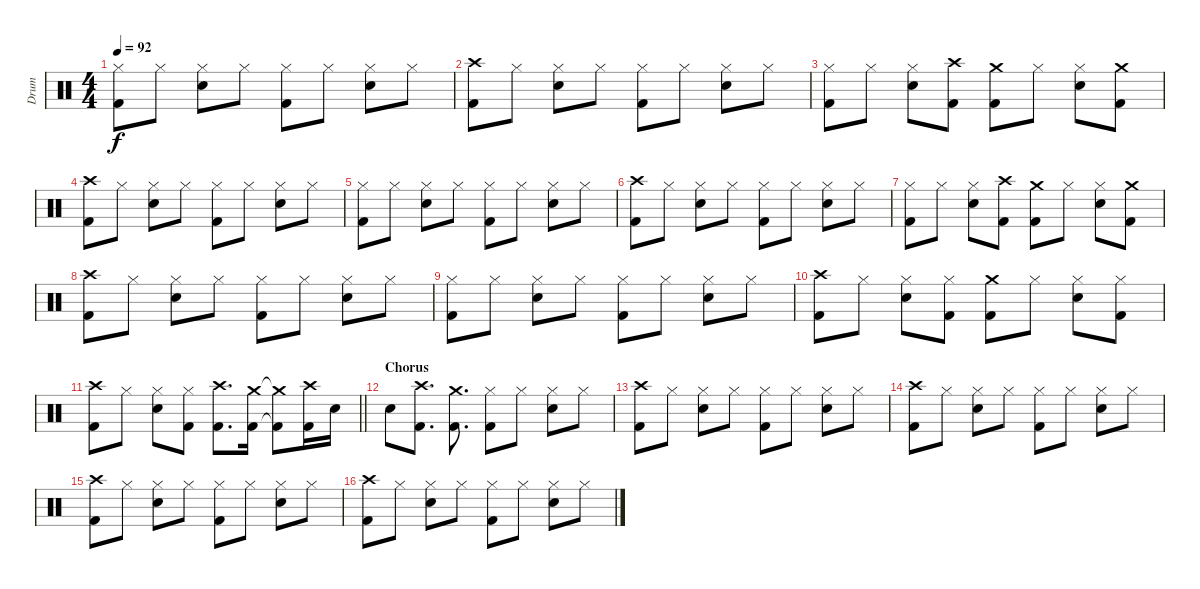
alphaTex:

\track ("Drum" "Drum") {instrument percussion}
\staff {score}
\articulation defaults
\ts (4 4)
\tempo 92
\clef neutral
\ks c
("Hi-Hat (closed)" "Kick (hit) 2").8{dy f} "Hi-Hat (closed)".8 ("Hi-Hat (closed)" "Snare (hit) 2").8 "Hi-Hat (closed)".8 ("Hi-Hat (closed)" "Kick (hit) 2").8 "Hi-Hat (closed)".8 ("Hi-Hat (closed)" "Snare (hit) 2").8 "Hi-Hat (closed)".8 |
("Crash high (hit)" "Kick (hit) 2").8 "Hi-Hat (closed)".8 ("Hi-Hat (closed)" "Snare (hit) 2").8 "Hi-Hat (closed)".8 ("Hi-Hat (closed)" "Kick (hit) 2").8 "Hi-Hat (closed)".8 ("Hi-Hat (closed)" "Snare (hit) 2").8 "Hi-Hat (closed)".8 |
("Hi-Hat (closed)" "Kick (hit) 2").8 "Hi-Hat (closed)".8 ("Hi-Hat (closed)" "Snare (hit) 2").8 ("Crash high (hit)" "Kick (hit) 2").8 ("Crash medium (hit)" "Kick (hit) 2").8 "Hi-Hat (closed)".8 ("Hi-Hat (closed)" "Snare (hit) 2").8 ("Crash medium (hit)" "Kick (hit) 2").8 |
("Crash high (hit)" "Kick (hit) 2").8 "Hi-Hat (closed)".8 ("Hi-Hat (closed)" "Snare (hit) 2").8 "Hi-Hat (closed)".8 ("Hi-Hat (closed)" "Kick (hit) 2").8 "Hi-Hat (closed)".8 ("Hi-Hat (closed)" "Snare (hit) 2").8 "Hi-Hat (closed)".8 |
("Hi-Hat (closed)" "Kick (hit) 2").8 "Hi-Hat (closed)".8 ("Hi-Hat (closed)" "Snare (hit) 2").8 "Hi-Hat (closed)".8 ("Hi-Hat (closed)" "Kick (hit) 2").8 "Hi-Hat (closed)".8 ("Hi-Hat (closed)" "Snare (hit) 2").8 "Hi-Hat (closed)".8 |
("Crash high (hit)" "Kick (hit) 2").8 "Hi-Hat (closed)".8 ("Hi-Hat (closed)" "Snare (hit) 2").8 "Hi-Hat (closed)".8 ("Hi-Hat (closed)" "Kick (hit) 2").8 "Hi-Hat (closed)".8 ("Hi-Hat (closed)" "Snare (hit) 2").8 "Hi-Hat (closed)".8 |
("Hi-Hat (closed)" "Kick (hit) 2").8 "Hi-Hat (closed)".8 ("Hi-Hat (closed)" "Snare (hit) 2").8 ("Crash high (hit)" "Kick (hit) 2").8 ("Crash medium (hit)" "Kick (hit) 2").8 "Hi-Hat (closed)".8 ("Hi-Hat (closed)" "Snare (hit) 2").8 ("Crash medium (hit)" "Kick (hit) 2").8 |
("Crash high (hit)" "Kick (hit) 2").8 "Hi-Hat (closed)".8 ("Hi-Hat (closed)" "Snare (hit) 2").8 "Hi-Hat (closed)".8 ("Hi-Hat (closed)" "Kick (hit) 2").8 "Hi-Hat (closed)".8 ("Hi-Hat (closed)" "Snare (hit) 2").8 "Hi-Hat (closed)".8 |
("Hi-Hat (closed)" "Kick (hit) 2").8 "Hi-Hat (closed)".8 ("Hi-Hat (closed)" "Snare (hit) 2").8 "Hi-Hat (closed)".8 ("Hi-Hat (closed)" "Kick (hit) 2").8 "Hi-Hat (closed)".8 ("Hi-Hat (closed)" "Snare (hit) 2").8 "Hi-Hat (closed)".8 |
("Crash high (hit)" "Kick (hit) 2").8 "Hi-Hat (closed)".8 ("Hi-Hat (closed)" "Snare (hit) 2").8 ("Hi-Hat (closed)" "Kick (hit) 2").8 ("Crash medium (hit)" "Kick (hit) 2").8 "Hi-Hat (closed)".8 ("Hi-Hat (closed)" "Snare (hit) 2").8 ("Hi-Hat (closed)" "Kick (hit) 2").8 |
\barLineRight lightlight
("Crash high (hit)" "Kick (hit) 2").8 "Hi-Hat (closed)".8 ("Hi-Hat (closed)" "Snare (hit) 2").8 ("Hi-Hat (closed)" "Kick (hit) 2").8 ("Crash high (hit)" "Kick (hit) 2").8{d} ("Crash medium (hit)" "Kick (hit) 2").16 ("Crash medium (hit)"{t} "Kick (hit) 2"{t}).8 ("Crash high (hit)" "Kick (hit) 2").16 "Snare (hit) 2".16 |
\section ("" "Chorus")
"Snare (hit) 2".8 ("Crash high (hit)" "Kick (hit) 2").8{d} ("Crash medium (hit)" "Kick (hit) 2").8{d} ("Hi-Hat (closed)" "Kick (hit) 2").8 "Hi-Hat (closed)".8 ("Hi-Hat (closed)" "Snare (hit) 2").8 "Hi-Hat (closed)".8 |
("Crash high (hit)" "Kick (hit) 2").8 "Hi-Hat (closed)".8 ("Hi-Hat (closed)" "Snare (hit) 2").8 "Hi-Hat (closed)".8 ("Hi-Hat (closed)" "Kick (hit) 2").8 "Hi-Hat (closed)".8 ("Hi-Hat (closed)" "Snare (hit) 2").8 "Hi-Hat (closed)".8 |
("Crash high (hit)" "Kick (hit) 2").8 "Hi-Hat (closed)".8 ("Hi-Hat (closed)" "Snare (hit) 2").8 "Hi-Hat (closed)".8 ("Hi-Hat (closed)" "Kick (hit) 2").8 "Hi-Hat (closed)".8 ("Hi-Hat (closed)" "Snare (hit) 2").8 "Hi-Hat (closed)".8 |
("Crash high (hit)" "Kick (hit) 2").8 "Hi-Hat (closed)".8 ("Hi-Hat (closed)" "Snare (hit) 2").8 "Hi-Hat (closed)".8 ("Hi-Hat (closed)" "Kick (hit) 2").8 "Hi-Hat (closed)".8 ("Hi-Hat (closed)" "Snare (hit) 2").8 "Hi-Hat (closed)".8 |
("Crash high (hit)" "Kick (hit) 2").8 "Hi-Hat (closed)".8 ("Hi-Hat (closed)" "Snare (hit) 2").8 "Hi-Hat (closed)".8 ("Hi-Hat (closed)" "Kick (hit) 2").8 "Hi-Hat (closed)".8 ("Hi-Hat (closed)" "Snare (hit) 2").8 "Hi-Hat (closed)".8
